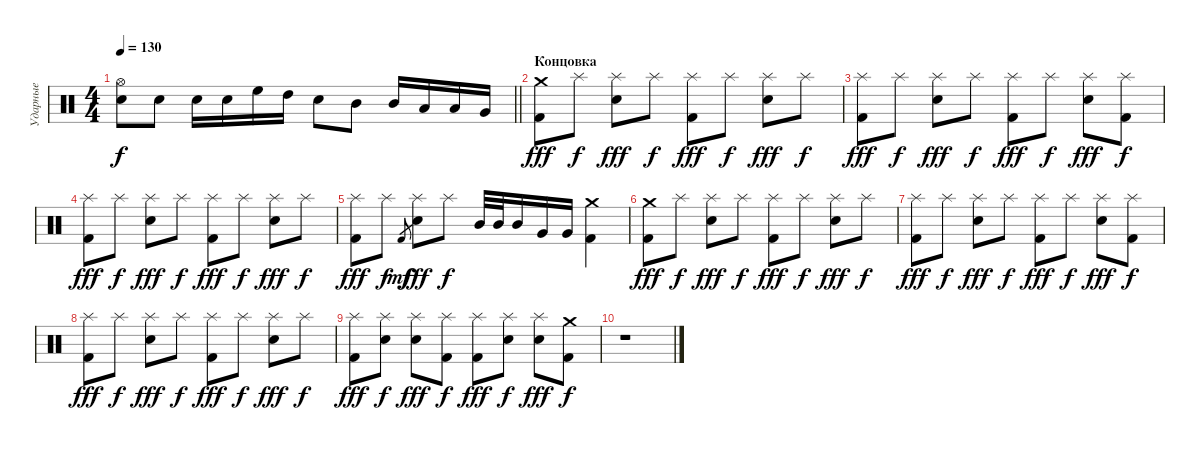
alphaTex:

\track ("Ударные" "Ударные") {instrument percussion}
\staff {score}
\articulation defaults
\ts (4 4)
\tempo 130
\clef neutral
\barLineRight lightlight
\ks c
("Electric Snare (hit)" "Hi-Hat (open)").8{dy f} "Electric Snare (hit)".8 "Electric Snare (hit)".16 "Electric Snare (hit)".16 "High Floor Tom (hit)".16 "High Tom (hit)".16 "Electric Snare (hit)".8 "Mid Tom (hit)".8 "Mid Tom (hit)".16 "Low Tom (hit)".16 "Low Tom (hit)".16 "Very Low Tom (hit)".16 |
\section ("" "Концовка")
("Kick (hit) 2" "Crash medium (hit)").8{dy fff} "Splash (hit)".8{dy f} ("Electric Snare (hit)" "Splash (hit)").8{dy fff} "Splash (hit)".8{dy f} ("Kick (hit) 2" "Splash (hit)").8{dy fff} "Splash (hit)".8{dy f} ("Electric Snare (hit)" "Splash (hit)").8{dy fff} "Splash (hit)".8{dy f} |
("Kick (hit) 2" "Splash (hit)").8{dy fff} "Splash (hit)".8{dy f} ("Electric Snare (hit)" "Splash (hit)").8{dy fff} "Splash (hit)".8{dy f} ("Kick (hit) 2" "Splash (hit)").8{dy fff} "Splash (hit)".8{dy f} ("Electric Snare (hit)" "Splash (hit)").8{dy fff} ("Kick (hit) 2" "Splash (hit)").8{dy f} |
("Kick (hit) 2" "Splash (hit)").8{dy fff} "Splash (hit)".8{dy f} ("Electric Snare (hit)" "Splash (hit)").8{dy fff} "Splash (hit)".8{dy f} ("Kick (hit) 2" "Splash (hit)").8{dy fff} "Splash (hit)".8{dy f} ("Electric Snare (hit)" "Splash (hit)").8{dy fff} "Splash (hit)".8{dy f} |
("Kick (hit) 2" "Splash (hit)").8{dy fff} "Splash (hit)".8{dy f} "Kick (hit) 2".8{gr dy mf} ("Electric Snare (hit)" "Splash (hit)").8{dy fff} "Splash (hit)".8{dy f} "Mid Tom (hit)".32 "Mid Tom (hit)".32 "Mid Tom (hit)".16 "Very Low Tom (hit)".16 "Very Low Tom (hit)".16 ("Kick (hit) 2" "Crash medium (hit)").4 |
("Kick (hit) 2" "Crash medium (hit)").8{dy fff} "Splash (hit)".8{dy f} ("Electric Snare (hit)" "Splash (hit)").8{dy fff} "Splash (hit)".8{dy f} ("Kick (hit) 2" "Splash (hit)").8{dy fff} "Splash (hit)".8{dy f} ("Electric Snare (hit)" "Splash (hit)").8{dy fff} "Splash (hit)".8{dy f} |
("Kick (hit) 2" "Splash (hit)").8{dy fff} "Splash (hit)".8{dy f} ("Electric Snare (hit)" "Splash (hit)").8{dy fff} "Splash (hit)".8{dy f} ("Kick (hit) 2" "Splash (hit)").8{dy fff} "Splash (hit)".8{dy f} ("Electric Snare (hit)" "Splash (hit)").8{dy fff} ("Kick (hit) 2" "Splash (hit)").8{dy f} |
("Kick (hit) 2" "Splash (hit)").8{dy fff} "Splash (hit)".8{dy f} ("Electric Snare (hit)" "Splash (hit)").8{dy fff} "Splash (hit)".8{dy f} ("Kick (hit) 2" "Splash (hit)").8{dy fff} "Splash (hit)".8{dy f} ("Electric Snare (hit)" "Splash (hit)").8{dy fff} "Splash (hit)".8{dy f} |
("Kick (hit) 2" "Splash (hit)").8{dy fff} ("Electric Snare (hit)" "Splash (hit)").8{dy f} ("Electric Snare (hit)" "Splash (hit)").8{dy fff} ("Kick (hit) 2" "Splash (hit)").8{dy f} ("Kick (hit) 2" "Splash (hit)").8{dy fff} ("Electric Snare (hit)" "Splash (hit)").8{dy f} ("Electric Snare (hit)" "Splash (hit)").8{dy fff} ("Kick (hit) 2" "Crash medium (hit)").8{dy f} |
r.1
